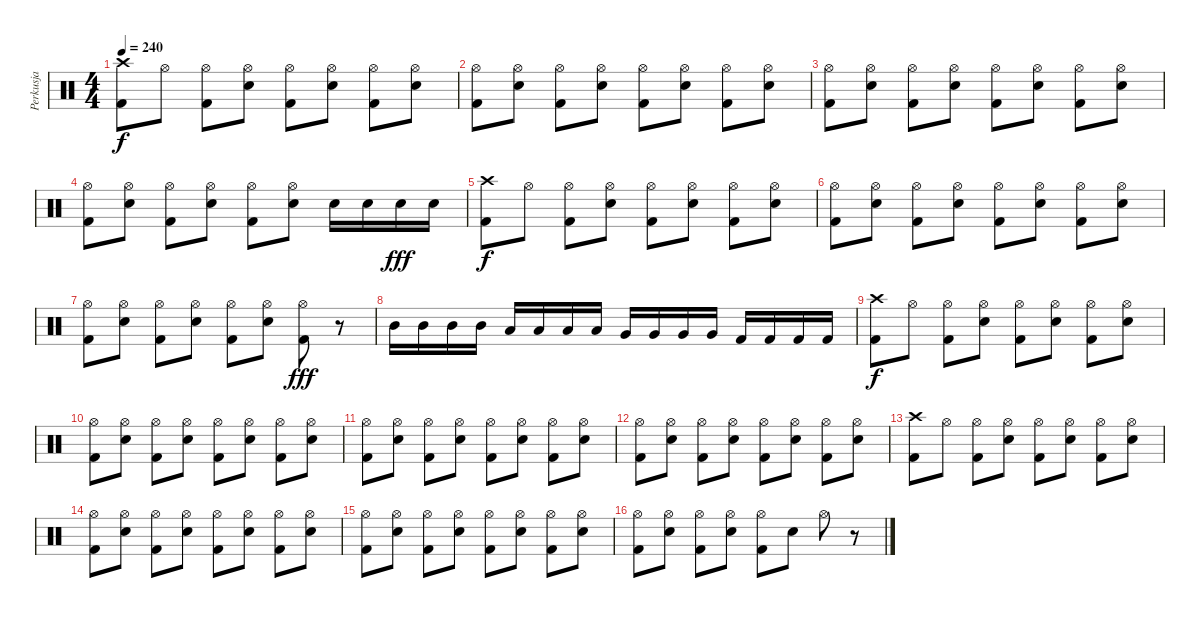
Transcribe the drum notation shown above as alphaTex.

\track ("Perkusja" "Perkusja") {instrument percussion bank 10}
\staff {score}
\articulation defaults
\ts (4 4)
\tempo 240
\clef neutral
\ks c
("Crash high (hit)" "Kick (hit) 2").8{dy f} "Hi-Hat (open)".8 ("Hi-Hat (open)" "Kick (hit) 2").8 ("Hi-Hat (open)" "Snare (hit) 2").8 ("Hi-Hat (open)" "Kick (hit) 2").8 ("Hi-Hat (open)" "Snare (hit) 2").8 ("Hi-Hat (open)" "Kick (hit) 2").8 ("Hi-Hat (open)" "Snare (hit) 2").8 |
("Hi-Hat (open)" "Kick (hit) 2").8 ("Hi-Hat (open)" "Snare (hit) 2").8 ("Hi-Hat (open)" "Kick (hit) 2").8 ("Hi-Hat (open)" "Snare (hit) 2").8 ("Hi-Hat (open)" "Kick (hit) 2").8 ("Hi-Hat (open)" "Snare (hit) 2").8 ("Hi-Hat (open)" "Kick (hit) 2").8 ("Hi-Hat (open)" "Snare (hit) 2").8 |
("Hi-Hat (open)" "Kick (hit) 2").8 ("Hi-Hat (open)" "Snare (hit) 2").8 ("Hi-Hat (open)" "Kick (hit) 2").8 ("Hi-Hat (open)" "Snare (hit) 2").8 ("Hi-Hat (open)" "Kick (hit) 2").8 ("Hi-Hat (open)" "Snare (hit) 2").8 ("Hi-Hat (open)" "Kick (hit) 2").8 ("Hi-Hat (open)" "Snare (hit) 2").8 |
("Hi-Hat (open)" "Kick (hit) 2").8 ("Hi-Hat (open)" "Snare (hit) 2").8 ("Hi-Hat (open)" "Kick (hit) 2").8 ("Hi-Hat (open)" "Snare (hit) 2").8 ("Hi-Hat (open)" "Kick (hit) 2").8 ("Hi-Hat (open)" "Snare (hit) 2").8 "Snare (hit) 2".16 "Snare (hit) 2".16 "Snare (hit) 2".16{dy fff} "Snare (hit) 2".16 |
("Crash high (hit)" "Kick (hit) 2").8{dy f} "Hi-Hat (open)".8 ("Hi-Hat (open)" "Kick (hit) 2").8 ("Hi-Hat (open)" "Snare (hit) 2").8 ("Hi-Hat (open)" "Kick (hit) 2").8 ("Hi-Hat (open)" "Snare (hit) 2").8 ("Hi-Hat (open)" "Kick (hit) 2").8 ("Hi-Hat (open)" "Snare (hit) 2").8 |
("Hi-Hat (open)" "Kick (hit) 2").8 ("Hi-Hat (open)" "Snare (hit) 2").8 ("Hi-Hat (open)" "Kick (hit) 2").8 ("Hi-Hat (open)" "Snare (hit) 2").8 ("Hi-Hat (open)" "Kick (hit) 2").8 ("Hi-Hat (open)" "Snare (hit) 2").8 ("Hi-Hat (open)" "Kick (hit) 2").8 ("Hi-Hat (open)" "Snare (hit) 2").8 |
("Hi-Hat (open)" "Kick (hit) 2").8 ("Hi-Hat (open)" "Snare (hit) 2").8 ("Hi-Hat (open)" "Kick (hit) 2").8 ("Hi-Hat (open)" "Snare (hit) 2").8 ("Hi-Hat (open)" "Kick (hit) 2").8 ("Hi-Hat (open)" "Snare (hit) 2").8 ("Hi-Hat (open)" "Kick (hit) 2").8{dy fff} r.8 |
"Mid Tom (hit)".16 "Mid Tom (hit)".16 "Mid Tom (hit)".16 "Mid Tom (hit)".16 "Low Tom (hit)".16 "Low Tom (hit)".16 "Low Tom (hit)".16 "Low Tom (hit)".16 "Very Low Tom (hit)".16 "Very Low Tom (hit)".16 "Very Low Tom (hit)".16 "Very Low Tom (hit)".16 "Kick (hit) 2".16 "Kick (hit) 2".16 "Kick (hit) 2".16 "Kick (hit) 2".16 |
("Crash high (hit)" "Kick (hit) 2").8{dy f} "Hi-Hat (open)".8 ("Hi-Hat (open)" "Kick (hit) 2").8 ("Hi-Hat (open)" "Snare (hit) 2").8 ("Hi-Hat (open)" "Kick (hit) 2").8 ("Hi-Hat (open)" "Snare (hit) 2").8 ("Hi-Hat (open)" "Kick (hit) 2").8 ("Hi-Hat (open)" "Snare (hit) 2").8 |
("Hi-Hat (open)" "Kick (hit) 2").8 ("Hi-Hat (open)" "Snare (hit) 2").8 ("Hi-Hat (open)" "Kick (hit) 2").8 ("Hi-Hat (open)" "Snare (hit) 2").8 ("Hi-Hat (open)" "Kick (hit) 2").8 ("Hi-Hat (open)" "Snare (hit) 2").8 ("Hi-Hat (open)" "Kick (hit) 2").8 ("Hi-Hat (open)" "Snare (hit) 2").8 |
("Hi-Hat (open)" "Kick (hit) 2").8 ("Hi-Hat (open)" "Snare (hit) 2").8 ("Hi-Hat (open)" "Kick (hit) 2").8 ("Hi-Hat (open)" "Snare (hit) 2").8 ("Hi-Hat (open)" "Kick (hit) 2").8 ("Hi-Hat (open)" "Snare (hit) 2").8 ("Hi-Hat (open)" "Kick (hit) 2").8 ("Hi-Hat (open)" "Snare (hit) 2").8 |
("Hi-Hat (open)" "Kick (hit) 2").8 ("Hi-Hat (open)" "Snare (hit) 2").8 ("Hi-Hat (open)" "Kick (hit) 2").8 ("Hi-Hat (open)" "Snare (hit) 2").8 ("Hi-Hat (open)" "Kick (hit) 2").8 ("Hi-Hat (open)" "Snare (hit) 2").8 ("Hi-Hat (open)" "Kick (hit) 2").8 ("Hi-Hat (open)" "Snare (hit) 2").8 |
("Crash high (hit)" "Kick (hit) 2").8 "Hi-Hat (open)".8 ("Hi-Hat (open)" "Kick (hit) 2").8 ("Hi-Hat (open)" "Snare (hit) 2").8 ("Hi-Hat (open)" "Kick (hit) 2").8 ("Hi-Hat (open)" "Snare (hit) 2").8 ("Hi-Hat (open)" "Kick (hit) 2").8 ("Hi-Hat (open)" "Snare (hit) 2").8 |
("Hi-Hat (open)" "Kick (hit) 2").8 ("Hi-Hat (open)" "Snare (hit) 2").8 ("Hi-Hat (open)" "Kick (hit) 2").8 ("Hi-Hat (open)" "Snare (hit) 2").8 ("Hi-Hat (open)" "Kick (hit) 2").8 ("Hi-Hat (open)" "Snare (hit) 2").8 ("Hi-Hat (open)" "Kick (hit) 2").8 ("Hi-Hat (open)" "Snare (hit) 2").8 |
("Hi-Hat (open)" "Kick (hit) 2").8 ("Hi-Hat (open)" "Snare (hit) 2").8 ("Hi-Hat (open)" "Kick (hit) 2").8 ("Hi-Hat (open)" "Snare (hit) 2").8 ("Hi-Hat (open)" "Kick (hit) 2").8 ("Hi-Hat (open)" "Snare (hit) 2").8 ("Hi-Hat (open)" "Kick (hit) 2").8 ("Hi-Hat (open)" "Snare (hit) 2").8 |
("Hi-Hat (open)" "Kick (hit) 2").8 ("Hi-Hat (open)" "Snare (hit) 2").8 ("Hi-Hat (open)" "Kick (hit) 2").8 ("Hi-Hat (open)" "Snare (hit) 2").8 ("Hi-Hat (open)" "Kick (hit) 2").8 "Snare (hit) 2".8 "Hi-Hat (open)".8 r.8
